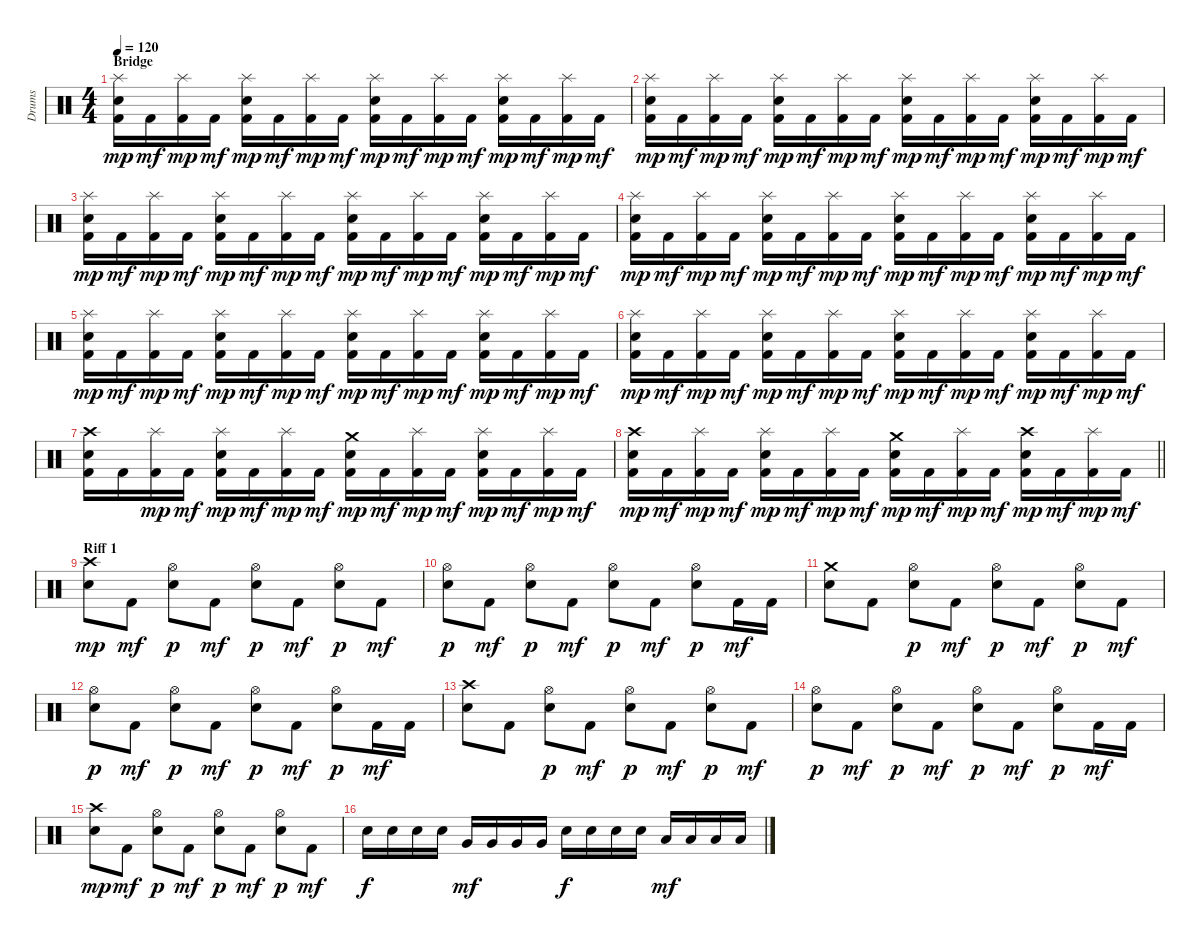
\track ("Drums" "Drums") {instrument percussion}
\staff {score}
\articulation defaults
\ts (4 4)
\section ("" "Bridge")
\tempo 120
\clef neutral
\ks c
("Kick (hit) 2" "Splash (hit)" "Snare (hit) 2").16{dy mp} "Kick (hit) 2".16{dy mf} ("Kick (hit) 2" "Splash (hit)").16{dy mp} "Kick (hit) 2".16{dy mf} ("Kick (hit) 2" "Splash (hit)" "Snare (hit) 2").16{dy mp} "Kick (hit) 2".16{dy mf} ("Kick (hit) 2" "Splash (hit)").16{dy mp} "Kick (hit) 2".16{dy mf} ("Kick (hit) 2" "Splash (hit)" "Snare (hit) 2").16{dy mp} "Kick (hit) 2".16{dy mf} ("Kick (hit) 2" "Splash (hit)").16{dy mp} "Kick (hit) 2".16{dy mf} ("Kick (hit) 2" "Splash (hit)" "Snare (hit) 2").16{dy mp} "Kick (hit) 2".16{dy mf} ("Kick (hit) 2" "Splash (hit)").16{dy mp} "Kick (hit) 2".16{dy mf} |
("Kick (hit) 2" "Splash (hit)" "Snare (hit) 2").16{dy mp} "Kick (hit) 2".16{dy mf} ("Kick (hit) 2" "Splash (hit)").16{dy mp} "Kick (hit) 2".16{dy mf} ("Kick (hit) 2" "Splash (hit)" "Snare (hit) 2").16{dy mp} "Kick (hit) 2".16{dy mf} ("Kick (hit) 2" "Splash (hit)").16{dy mp} "Kick (hit) 2".16{dy mf} ("Kick (hit) 2" "Splash (hit)" "Snare (hit) 2").16{dy mp} "Kick (hit) 2".16{dy mf} ("Kick (hit) 2" "Splash (hit)").16{dy mp} "Kick (hit) 2".16{dy mf} ("Kick (hit) 2" "Splash (hit)" "Snare (hit) 2").16{dy mp} "Kick (hit) 2".16{dy mf} ("Kick (hit) 2" "Splash (hit)").16{dy mp} "Kick (hit) 2".16{dy mf} |
("Kick (hit) 2" "Splash (hit)" "Snare (hit) 2").16{dy mp} "Kick (hit) 2".16{dy mf} ("Kick (hit) 2" "Splash (hit)").16{dy mp} "Kick (hit) 2".16{dy mf} ("Kick (hit) 2" "Splash (hit)" "Snare (hit) 2").16{dy mp} "Kick (hit) 2".16{dy mf} ("Kick (hit) 2" "Splash (hit)").16{dy mp} "Kick (hit) 2".16{dy mf} ("Kick (hit) 2" "Splash (hit)" "Snare (hit) 2").16{dy mp} "Kick (hit) 2".16{dy mf} ("Kick (hit) 2" "Splash (hit)").16{dy mp} "Kick (hit) 2".16{dy mf} ("Kick (hit) 2" "Splash (hit)" "Snare (hit) 2").16{dy mp} "Kick (hit) 2".16{dy mf} ("Kick (hit) 2" "Splash (hit)").16{dy mp} "Kick (hit) 2".16{dy mf} |
("Kick (hit) 2" "Splash (hit)" "Snare (hit) 2").16{dy mp} "Kick (hit) 2".16{dy mf} ("Kick (hit) 2" "Splash (hit)").16{dy mp} "Kick (hit) 2".16{dy mf} ("Kick (hit) 2" "Splash (hit)" "Snare (hit) 2").16{dy mp} "Kick (hit) 2".16{dy mf} ("Kick (hit) 2" "Splash (hit)").16{dy mp} "Kick (hit) 2".16{dy mf} ("Kick (hit) 2" "Splash (hit)" "Snare (hit) 2").16{dy mp} "Kick (hit) 2".16{dy mf} ("Kick (hit) 2" "Splash (hit)").16{dy mp} "Kick (hit) 2".16{dy mf} ("Kick (hit) 2" "Splash (hit)" "Snare (hit) 2").16{dy mp} "Kick (hit) 2".16{dy mf} ("Kick (hit) 2" "Splash (hit)").16{dy mp} "Kick (hit) 2".16{dy mf} |
("Kick (hit) 2" "Splash (hit)" "Snare (hit) 2").16{dy mp} "Kick (hit) 2".16{dy mf} ("Kick (hit) 2" "Splash (hit)").16{dy mp} "Kick (hit) 2".16{dy mf} ("Kick (hit) 2" "Splash (hit)" "Snare (hit) 2").16{dy mp} "Kick (hit) 2".16{dy mf} ("Kick (hit) 2" "Splash (hit)").16{dy mp} "Kick (hit) 2".16{dy mf} ("Kick (hit) 2" "Splash (hit)" "Snare (hit) 2").16{dy mp} "Kick (hit) 2".16{dy mf} ("Kick (hit) 2" "Splash (hit)").16{dy mp} "Kick (hit) 2".16{dy mf} ("Kick (hit) 2" "Splash (hit)" "Snare (hit) 2").16{dy mp} "Kick (hit) 2".16{dy mf} ("Kick (hit) 2" "Splash (hit)").16{dy mp} "Kick (hit) 2".16{dy mf} |
("Kick (hit) 2" "Splash (hit)" "Snare (hit) 2").16{dy mp} "Kick (hit) 2".16{dy mf} ("Kick (hit) 2" "Splash (hit)").16{dy mp} "Kick (hit) 2".16{dy mf} ("Kick (hit) 2" "Splash (hit)" "Snare (hit) 2").16{dy mp} "Kick (hit) 2".16{dy mf} ("Kick (hit) 2" "Splash (hit)").16{dy mp} "Kick (hit) 2".16{dy mf} ("Kick (hit) 2" "Splash (hit)" "Snare (hit) 2").16{dy mp} "Kick (hit) 2".16{dy mf} ("Kick (hit) 2" "Splash (hit)").16{dy mp} "Kick (hit) 2".16{dy mf} ("Kick (hit) 2" "Splash (hit)" "Snare (hit) 2").16{dy mp} "Kick (hit) 2".16{dy mf} ("Kick (hit) 2" "Splash (hit)").16{dy mp} "Kick (hit) 2".16{dy mf} |
("Kick (hit) 2" "Crash high (hit)" "Snare (hit) 2").16 "Kick (hit) 2".16 ("Kick (hit) 2" "Splash (hit)").16{dy mp} "Kick (hit) 2".16{dy mf} ("Kick (hit) 2" "Splash (hit)" "Snare (hit) 2").16{dy mp} "Kick (hit) 2".16{dy mf} ("Kick (hit) 2" "Splash (hit)").16{dy mp} "Kick (hit) 2".16{dy mf} ("Kick (hit) 2" "Crash medium (hit)" "Snare (hit) 2").16{dy mp} "Kick (hit) 2".16{dy mf} ("Kick (hit) 2" "Splash (hit)").16{dy mp} "Kick (hit) 2".16{dy mf} ("Kick (hit) 2" "Splash (hit)" "Snare (hit) 2").16{dy mp} "Kick (hit) 2".16{dy mf} ("Kick (hit) 2" "Splash (hit)").16{dy mp} "Kick (hit) 2".16{dy mf} |
\barLineRight lightlight
("Kick (hit) 2" "Crash high (hit)" "Snare (hit) 2").16{dy mp} "Kick (hit) 2".16{dy mf} ("Kick (hit) 2" "Splash (hit)").16{dy mp} "Kick (hit) 2".16{dy mf} ("Kick (hit) 2" "Splash (hit)" "Snare (hit) 2").16{dy mp} "Kick (hit) 2".16{dy mf} ("Kick (hit) 2" "Splash (hit)").16{dy mp} "Kick (hit) 2".16{dy mf} ("Kick (hit) 2" "Crash medium (hit)" "Snare (hit) 2").16{dy mp} "Kick (hit) 2".16{dy mf} ("Kick (hit) 2" "Splash (hit)").16{dy mp} "Kick (hit) 2".16{dy mf} ("Kick (hit) 2" "Crash high (hit)" "Snare (hit) 2").16{dy mp} "Kick (hit) 2".16{dy mf} ("Kick (hit) 2" "Splash (hit)").16{dy mp} "Kick (hit) 2".16{dy mf} |
\section ("" "Riff 1")
("Crash high (hit)" "Snare (hit) 2").8{dy mp} "Kick (hit) 2".8{dy mf} ("Hi-Hat (open)" "Snare (hit) 2").8{dy p} "Kick (hit) 2".8{dy mf} ("Hi-Hat (open)" "Snare (hit) 2").8{dy p} "Kick (hit) 2".8{dy mf} ("Hi-Hat (open)" "Snare (hit) 2").8{dy p} "Kick (hit) 2".8{dy mf} |
("Hi-Hat (open)" "Snare (hit) 2").8{dy p} "Kick (hit) 2".8{dy mf} ("Hi-Hat (open)" "Snare (hit) 2").8{dy p} "Kick (hit) 2".8{dy mf} ("Hi-Hat (open)" "Snare (hit) 2").8{dy p} "Kick (hit) 2".8{dy mf} ("Hi-Hat (open)" "Snare (hit) 2").8{dy p} "Kick (hit) 2".16{dy mf} "Kick (hit) 2".16 |
("Crash medium (hit)" "Snare (hit) 2").8 "Kick (hit) 2".8 ("Hi-Hat (open)" "Snare (hit) 2").8{dy p} "Kick (hit) 2".8{dy mf} ("Hi-Hat (open)" "Snare (hit) 2").8{dy p} "Kick (hit) 2".8{dy mf} ("Hi-Hat (open)" "Snare (hit) 2").8{dy p} "Kick (hit) 2".8{dy mf} |
("Hi-Hat (open)" "Snare (hit) 2").8{dy p} "Kick (hit) 2".8{dy mf} ("Hi-Hat (open)" "Snare (hit) 2").8{dy p} "Kick (hit) 2".8{dy mf} ("Hi-Hat (open)" "Snare (hit) 2").8{dy p} "Kick (hit) 2".8{dy mf} ("Hi-Hat (open)" "Snare (hit) 2").8{dy p} "Kick (hit) 2".16{dy mf} "Kick (hit) 2".16 |
("Crash high (hit)" "Snare (hit) 2").8 "Kick (hit) 2".8 ("Hi-Hat (open)" "Snare (hit) 2").8{dy p} "Kick (hit) 2".8{dy mf} ("Hi-Hat (open)" "Snare (hit) 2").8{dy p} "Kick (hit) 2".8{dy mf} ("Hi-Hat (open)" "Snare (hit) 2").8{dy p} "Kick (hit) 2".8{dy mf} |
("Hi-Hat (open)" "Snare (hit) 2").8{dy p} "Kick (hit) 2".8{dy mf} ("Hi-Hat (open)" "Snare (hit) 2").8{dy p} "Kick (hit) 2".8{dy mf} ("Hi-Hat (open)" "Snare (hit) 2").8{dy p} "Kick (hit) 2".8{dy mf} ("Hi-Hat (open)" "Snare (hit) 2").8{dy p} "Kick (hit) 2".16{dy mf} "Kick (hit) 2".16 |
("Crash high (hit)" "Snare (hit) 2").8{dy mp} "Kick (hit) 2".8{dy mf} ("Hi-Hat (open)" "Snare (hit) 2").8{dy p} "Kick (hit) 2".8{dy mf} ("Hi-Hat (open)" "Snare (hit) 2").8{dy p} "Kick (hit) 2".8{dy mf} ("Hi-Hat (open)" "Snare (hit) 2").8{dy p} "Kick (hit) 2".8{dy mf} |
"Snare (hit) 2".16{dy f} "Snare (hit) 2".16 "Snare (hit) 2".16 "Snare (hit) 2".16 "Very Low Tom (hit)".16{dy mf} "Very Low Tom (hit)".16 "Very Low Tom (hit)".16 "Very Low Tom (hit)".16 "Snare (hit) 2".16{dy f} "Snare (hit) 2".16 "Snare (hit) 2".16 "Snare (hit) 2".16 "Low Floor Tom (hit)".16{dy mf} "Low Floor Tom (hit)".16 "Low Floor Tom (hit)".16 "Low Floor Tom (hit)".16
